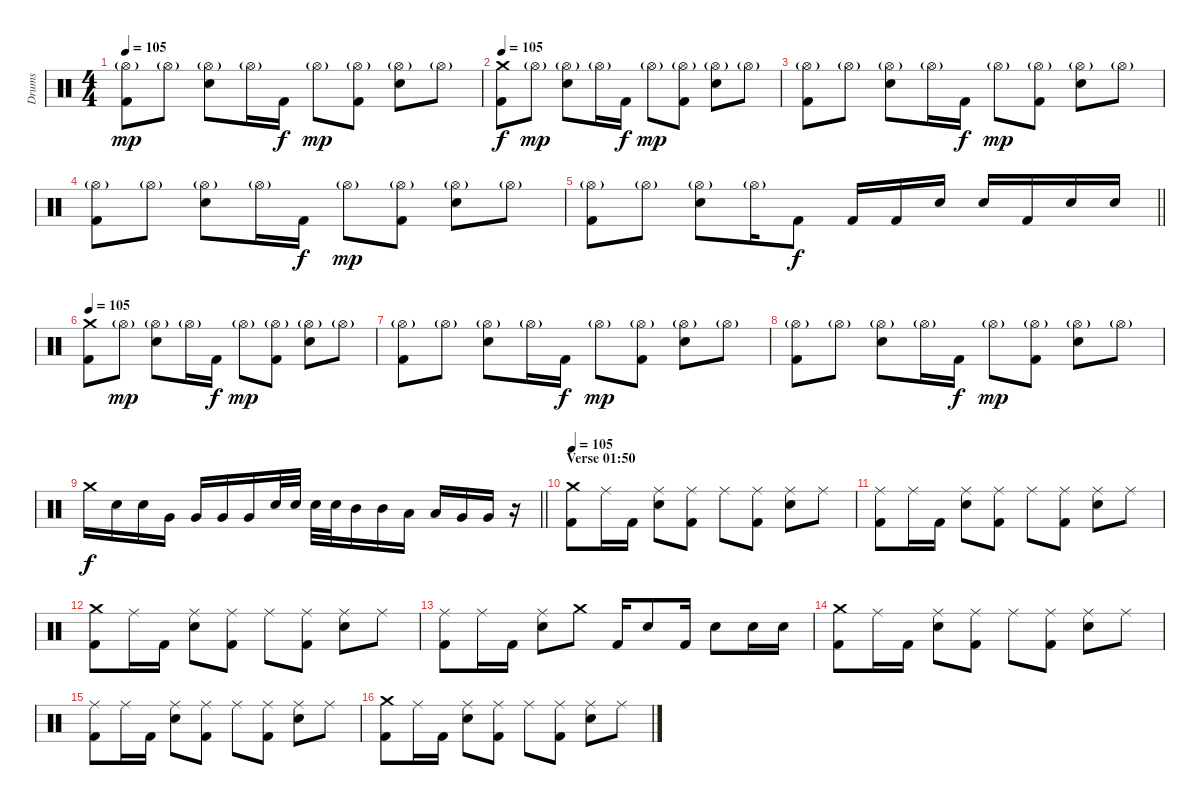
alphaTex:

\track ("Drums" "Drums") {instrument percussion}
\staff {score}
\articulation defaults
\ts (4 4)
\tempo 105
\clef neutral
\ks c
("Hi-Hat (open)"{g} "Kick (hit) 2").8{dy mp} "Hi-Hat (open)"{g}.8 ("Hi-Hat (open)"{g} "Electric Snare (hit)").8 "Hi-Hat (open)"{g}.16 "Kick (hit) 2".16{dy f} "Hi-Hat (open)"{g}.8{dy mp} ("Hi-Hat (open)"{g} "Kick (hit) 2").8 ("Hi-Hat (open)"{g} "Electric Snare (hit)").8 "Hi-Hat (open)"{g}.8 |
\tempo 105
("Crash medium (hit)" "Kick (hit) 2").8{dy f} "Hi-Hat (open)"{g}.8{dy mp} ("Hi-Hat (open)"{g} "Electric Snare (hit)").8 "Hi-Hat (open)"{g}.16 "Kick (hit) 2".16{dy f} "Hi-Hat (open)"{g}.8{dy mp} ("Hi-Hat (open)"{g} "Kick (hit) 2").8 ("Hi-Hat (open)"{g} "Electric Snare (hit)").8 "Hi-Hat (open)"{g}.8 |
("Hi-Hat (open)"{g} "Kick (hit) 2").8 "Hi-Hat (open)"{g}.8 ("Hi-Hat (open)"{g} "Electric Snare (hit)").8 "Hi-Hat (open)"{g}.16 "Kick (hit) 2".16{dy f} "Hi-Hat (open)"{g}.8{dy mp} ("Hi-Hat (open)"{g} "Kick (hit) 2").8 ("Hi-Hat (open)"{g} "Electric Snare (hit)").8 "Hi-Hat (open)"{g}.8 |
("Hi-Hat (open)"{g} "Kick (hit) 2").8 "Hi-Hat (open)"{g}.8 ("Hi-Hat (open)"{g} "Electric Snare (hit)").8 "Hi-Hat (open)"{g}.16 "Kick (hit) 2".16{dy f} "Hi-Hat (open)"{g}.8{dy mp} ("Hi-Hat (open)"{g} "Kick (hit) 2").8 ("Hi-Hat (open)"{g} "Electric Snare (hit)").8 "Hi-Hat (open)"{g}.8 |
\barLineRight lightlight
("Hi-Hat (open)"{g} "Kick (hit) 2").8 "Hi-Hat (open)"{g}.8 ("Hi-Hat (open)"{g} "Electric Snare (hit)").8 "Hi-Hat (open)"{g}.16 "Kick (hit) 2".8{dy f} "Kick (hit) 2".16 "Kick (hit) 2".16 "Electric Snare (hit)".16 "Electric Snare (hit)".16 "Kick (hit) 2".16 "Electric Snare (hit)".16 "Electric Snare (hit)".16 |
\tempo 105
("Crash medium (hit)" "Kick (hit) 2").8 "Hi-Hat (open)"{g}.8{dy mp} ("Hi-Hat (open)"{g} "Electric Snare (hit)").8 "Hi-Hat (open)"{g}.16 "Kick (hit) 2".16{dy f} "Hi-Hat (open)"{g}.8{dy mp} ("Hi-Hat (open)"{g} "Kick (hit) 2").8 ("Hi-Hat (open)"{g} "Electric Snare (hit)").8 "Hi-Hat (open)"{g}.8 |
("Hi-Hat (open)"{g} "Kick (hit) 2").8 "Hi-Hat (open)"{g}.8 ("Hi-Hat (open)"{g} "Electric Snare (hit)").8 "Hi-Hat (open)"{g}.16 "Kick (hit) 2".16{dy f} "Hi-Hat (open)"{g}.8{dy mp} ("Hi-Hat (open)"{g} "Kick (hit) 2").8 ("Hi-Hat (open)"{g} "Electric Snare (hit)").8 "Hi-Hat (open)"{g}.8 |
("Hi-Hat (open)"{g} "Kick (hit) 2").8 "Hi-Hat (open)"{g}.8 ("Hi-Hat (open)"{g} "Electric Snare (hit)").8 "Hi-Hat (open)"{g}.16 "Kick (hit) 2".16{dy f} "Hi-Hat (open)"{g}.8{dy mp} ("Hi-Hat (open)"{g} "Kick (hit) 2").8 ("Hi-Hat (open)"{g} "Electric Snare (hit)").8 "Hi-Hat (open)"{g}.8 |
\barLineRight lightlight "Crash medium (hit)".16{dy f} "Electric Snare (hit)".16 "Electric Snare (hit)".16 "Very Low Tom (hit)".16 "Very Low Tom (hit)".16 "Very Low Tom (hit)".16 "Very Low Tom (hit)".16 "Electric Snare (hit)".32 "Electric Snare (hit)".32 "Electric Snare (hit)".32 "Electric Snare (hit)".32 "Mid Tom (hit)".16 "Mid Tom (hit)".16 "Low Tom (hit)".16 "Low Tom (hit)".16 "Very Low Tom (hit)".16 "Very Low Tom (hit)".16
r.16 |
\section ("" "Verse 01:50")
\tempo 105
("Crash medium (hit)" "Kick (hit) 2").8 "Ride (middle)".16 "Kick (hit) 2".16 ("Ride (middle)" "Electric Snare (hit)").8 ("Ride (middle)" "Kick (hit) 2").8 "Ride (middle)".8 ("Ride (middle)" "Kick (hit) 2").8 ("Ride (middle)" "Electric Snare (hit)").8 "Ride (middle)".8 |
("Ride (middle)" "Kick (hit) 2").8 "Ride (middle)".16 "Kick (hit) 2".16 ("Ride (middle)" "Electric Snare (hit)").8 ("Ride (middle)" "Kick (hit) 2").8 "Ride (middle)".8 ("Ride (middle)" "Kick (hit) 2").8 ("Ride (middle)" "Electric Snare (hit)").8 "Ride (middle)".8 |
("Crash medium (hit)" "Kick (hit) 2").8 "Ride (middle)".16 "Kick (hit) 2".16 ("Ride (middle)" "Electric Snare (hit)").8 ("Ride (middle)" "Kick (hit) 2").8 "Ride (middle)".8 ("Ride (middle)" "Kick (hit) 2").8 ("Ride (middle)" "Electric Snare (hit)").8 "Ride (middle)".8 |
("Ride (middle)" "Kick (hit) 2").8 "Ride (middle)".16 "Kick (hit) 2".16 ("Ride (middle)" "Electric Snare (hit)").8 "Crash medium (hit)".8 "Kick (hit) 2".16 "Electric Snare (hit)".8 "Kick (hit) 2".16 "Electric Snare (hit)".8 "Electric Snare (hit)".16 "Electric Snare (hit)".16 |
("Crash medium (hit)" "Kick (hit) 2").8 "Ride (middle)".16 "Kick (hit) 2".16 ("Ride (middle)" "Electric Snare (hit)").8 ("Ride (middle)" "Kick (hit) 2").8 "Ride (middle)".8 ("Ride (middle)" "Kick (hit) 2").8 ("Ride (middle)" "Electric Snare (hit)").8 "Ride (middle)".8 |
("Ride (middle)" "Kick (hit) 2").8 "Ride (middle)".16 "Kick (hit) 2".16 ("Ride (middle)" "Electric Snare (hit)").8 ("Ride (middle)" "Kick (hit) 2").8 "Ride (middle)".8 ("Ride (middle)" "Kick (hit) 2").8 ("Ride (middle)" "Electric Snare (hit)").8 "Ride (middle)".8 |
("Crash medium (hit)" "Kick (hit) 2").8 "Ride (middle)".16 "Kick (hit) 2".16 ("Ride (middle)" "Electric Snare (hit)").8 ("Ride (middle)" "Kick (hit) 2").8 "Ride (middle)".8 ("Ride (middle)" "Kick (hit) 2").8 ("Ride (middle)" "Electric Snare (hit)").8 "Ride (middle)".8
